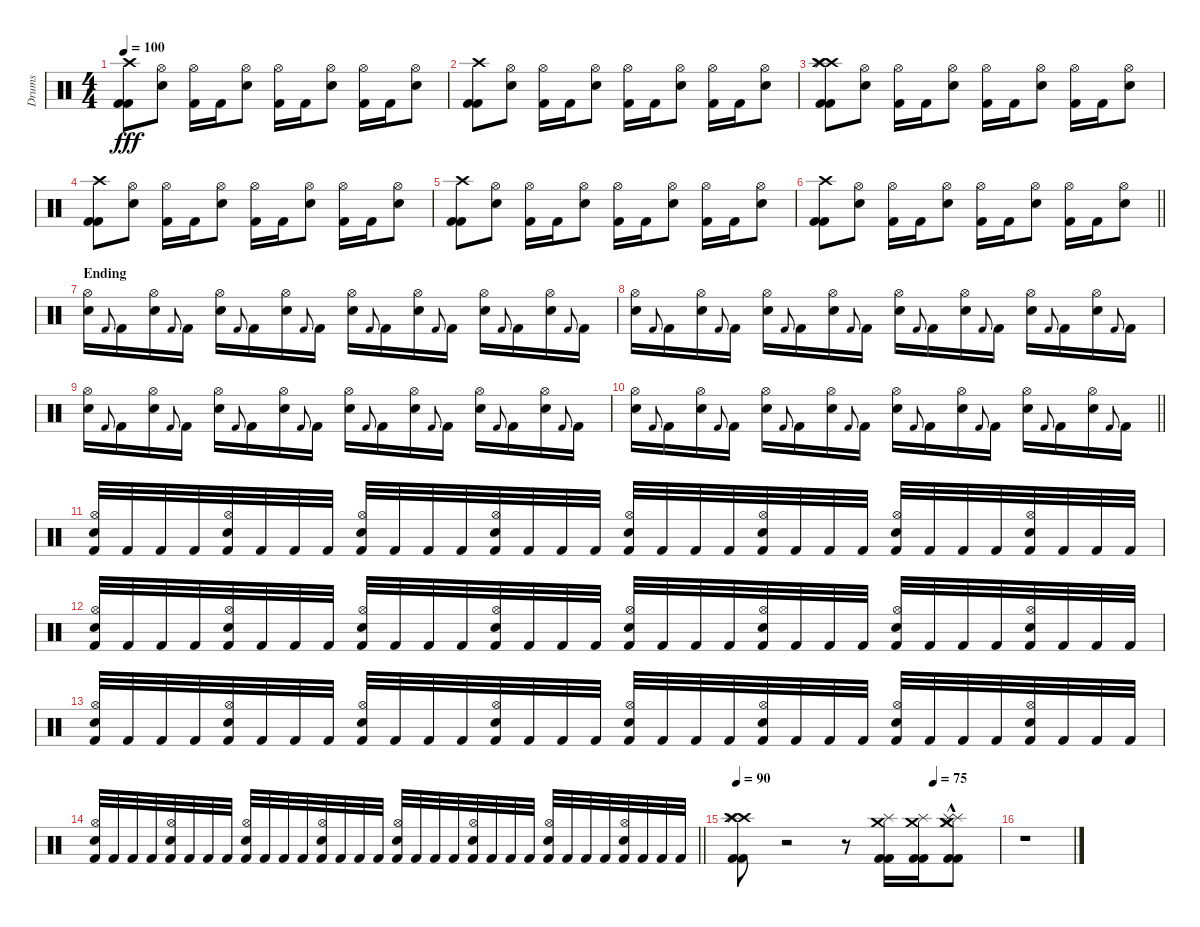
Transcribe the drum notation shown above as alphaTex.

\track ("Drums" "Drums") {instrument percussion}
\staff {score}
\articulation defaults
\ts (4 4)
\tempo 100
\clef neutral
\ks c
("Crash high (hit)" "Kick (hit) 2" "Kick (hit) 2").8{dy fff} ("Hi-Hat (open)" "Electric Snare (hit)").8 ("Hi-Hat (open)" "Kick (hit) 2").16 "Kick (hit) 2".16 ("Hi-Hat (open)" "Electric Snare (hit)").8 ("Hi-Hat (open)" "Kick (hit) 2").16 "Kick (hit) 2".16 ("Hi-Hat (open)" "Electric Snare (hit)").8 ("Hi-Hat (open)" "Kick (hit) 2").16 "Kick (hit) 2".16 ("Hi-Hat (open)" "Electric Snare (hit)").8 |
("Crash high (hit)" "Kick (hit) 2" "Kick (hit) 2").8 ("Hi-Hat (open)" "Electric Snare (hit)").8 ("Hi-Hat (open)" "Kick (hit) 2").16 "Kick (hit) 2".16 ("Hi-Hat (open)" "Electric Snare (hit)").8 ("Hi-Hat (open)" "Kick (hit) 2").16 "Kick (hit) 2".16 ("Hi-Hat (open)" "Electric Snare (hit)").8 ("Hi-Hat (open)" "Kick (hit) 2").16 "Kick (hit) 2".16 ("Hi-Hat (open)" "Electric Snare (hit)").8 |
("Crash high (hit)" "Crash high (hit)" "Splash (hit)" "Splash (hit)" "Kick (hit) 2" "Kick (hit) 2").8 ("Hi-Hat (open)" "Electric Snare (hit)").8 ("Hi-Hat (open)" "Kick (hit) 2").16 "Kick (hit) 2".16 ("Hi-Hat (open)" "Electric Snare (hit)").8 ("Hi-Hat (open)" "Kick (hit) 2").16 "Kick (hit) 2".16 ("Hi-Hat (open)" "Electric Snare (hit)").8 ("Hi-Hat (open)" "Kick (hit) 2").16 "Kick (hit) 2".16 ("Hi-Hat (open)" "Electric Snare (hit)").8 |
("Crash high (hit)" "Kick (hit) 2" "Kick (hit) 2").8 ("Hi-Hat (open)" "Electric Snare (hit)").8 ("Hi-Hat (open)" "Kick (hit) 2").16 "Kick (hit) 2".16 ("Hi-Hat (open)" "Electric Snare (hit)").8 ("Hi-Hat (open)" "Kick (hit) 2").16 "Kick (hit) 2".16 ("Hi-Hat (open)" "Electric Snare (hit)").8 ("Hi-Hat (open)" "Kick (hit) 2").16 "Kick (hit) 2".16 ("Hi-Hat (open)" "Electric Snare (hit)").8 |
("Crash high (hit)" "Kick (hit) 2" "Kick (hit) 2").8 ("Hi-Hat (open)" "Electric Snare (hit)").8 ("Hi-Hat (open)" "Kick (hit) 2").16 "Kick (hit) 2".16 ("Hi-Hat (open)" "Electric Snare (hit)").8 ("Hi-Hat (open)" "Kick (hit) 2").16 "Kick (hit) 2".16 ("Hi-Hat (open)" "Electric Snare (hit)").8 ("Hi-Hat (open)" "Kick (hit) 2").16 "Kick (hit) 2".16 ("Hi-Hat (open)" "Electric Snare (hit)").8 |
\barLineRight lightlight
("Crash high (hit)" "Kick (hit) 2" "Kick (hit) 2").8 ("Hi-Hat (open)" "Electric Snare (hit)").8 ("Hi-Hat (open)" "Kick (hit) 2").16 "Kick (hit) 2".16 ("Hi-Hat (open)" "Electric Snare (hit)").8 ("Hi-Hat (open)" "Kick (hit) 2").16 "Kick (hit) 2".16 ("Hi-Hat (open)" "Electric Snare (hit)").8 ("Hi-Hat (open)" "Kick (hit) 2").16 "Kick (hit) 2".16 ("Hi-Hat (open)" "Electric Snare (hit)").8 |
\section ("" "Ending")
("Hi-Hat (open)" "Electric Snare (hit)").16 "Kick (hit) 2".8{gr onbeat} "Kick (hit) 2".16 ("Hi-Hat (open)" "Electric Snare (hit)").16 "Kick (hit) 2".8{gr onbeat} "Kick (hit) 2".16 ("Hi-Hat (open)" "Electric Snare (hit)").16 "Kick (hit) 2".8{gr onbeat} "Kick (hit) 2".16 ("Hi-Hat (open)" "Electric Snare (hit)").16 "Kick (hit) 2".8{gr onbeat} "Kick (hit) 2".16 ("Hi-Hat (open)" "Electric Snare (hit)").16 "Kick (hit) 2".8{gr onbeat} "Kick (hit) 2".16 ("Hi-Hat (open)" "Electric Snare (hit)").16 "Kick (hit) 2".8{gr onbeat} "Kick (hit) 2".16 ("Hi-Hat (open)" "Electric Snare (hit)").16 "Kick (hit) 2".8{gr onbeat} "Kick (hit) 2".16 ("Hi-Hat (open)" "Electric Snare (hit)").16 "Kick (hit) 2".8{gr onbeat} "Kick (hit) 2".16 |
("Hi-Hat (open)" "Electric Snare (hit)").16 "Kick (hit) 2".8{gr onbeat} "Kick (hit) 2".16 ("Hi-Hat (open)" "Electric Snare (hit)").16 "Kick (hit) 2".8{gr onbeat} "Kick (hit) 2".16 ("Hi-Hat (open)" "Electric Snare (hit)").16 "Kick (hit) 2".8{gr onbeat} "Kick (hit) 2".16 ("Hi-Hat (open)" "Electric Snare (hit)").16 "Kick (hit) 2".8{gr onbeat} "Kick (hit) 2".16 ("Hi-Hat (open)" "Electric Snare (hit)").16 "Kick (hit) 2".8{gr onbeat} "Kick (hit) 2".16 ("Hi-Hat (open)" "Electric Snare (hit)").16 "Kick (hit) 2".8{gr onbeat} "Kick (hit) 2".16 ("Hi-Hat (open)" "Electric Snare (hit)").16 "Kick (hit) 2".8{gr onbeat} "Kick (hit) 2".16 ("Hi-Hat (open)" "Electric Snare (hit)").16 "Kick (hit) 2".8{gr onbeat} "Kick (hit) 2".16 |
("Hi-Hat (open)" "Electric Snare (hit)").16 "Kick (hit) 2".8{gr onbeat} "Kick (hit) 2".16 ("Hi-Hat (open)" "Electric Snare (hit)").16 "Kick (hit) 2".8{gr onbeat} "Kick (hit) 2".16 ("Hi-Hat (open)" "Electric Snare (hit)").16 "Kick (hit) 2".8{gr onbeat} "Kick (hit) 2".16 ("Hi-Hat (open)" "Electric Snare (hit)").16 "Kick (hit) 2".8{gr onbeat} "Kick (hit) 2".16 ("Hi-Hat (open)" "Electric Snare (hit)").16 "Kick (hit) 2".8{gr onbeat} "Kick (hit) 2".16 ("Hi-Hat (open)" "Electric Snare (hit)").16 "Kick (hit) 2".8{gr onbeat} "Kick (hit) 2".16 ("Hi-Hat (open)" "Electric Snare (hit)").16 "Kick (hit) 2".8{gr onbeat} "Kick (hit) 2".16 ("Hi-Hat (open)" "Electric Snare (hit)").16 "Kick (hit) 2".8{gr onbeat} "Kick (hit) 2".16 |
\barLineRight lightlight
("Hi-Hat (open)" "Electric Snare (hit)").16 "Kick (hit) 2".8{gr onbeat} "Kick (hit) 2".16 ("Hi-Hat (open)" "Electric Snare (hit)").16 "Kick (hit) 2".8{gr onbeat} "Kick (hit) 2".16 ("Hi-Hat (open)" "Electric Snare (hit)").16 "Kick (hit) 2".8{gr onbeat} "Kick (hit) 2".16 ("Hi-Hat (open)" "Electric Snare (hit)").16 "Kick (hit) 2".8{gr onbeat} "Kick (hit) 2".16 ("Hi-Hat (open)" "Electric Snare (hit)").16 "Kick (hit) 2".8{gr onbeat} "Kick (hit) 2".16 ("Hi-Hat (open)" "Electric Snare (hit)").16 "Kick (hit) 2".8{gr onbeat} "Kick (hit) 2".16 ("Hi-Hat (open)" "Electric Snare (hit)").16 "Kick (hit) 2".8{gr onbeat} "Kick (hit) 2".16 ("Hi-Hat (open)" "Electric Snare (hit)").16 "Kick (hit) 2".8{gr onbeat} "Kick (hit) 2".16 |
("Hi-Hat (open)" "Electric Snare (hit)" "Kick (hit) 2").32 "Kick (hit) 2".32 "Kick (hit) 2".32 "Kick (hit) 2".32 ("Hi-Hat (open)" "Electric Snare (hit)" "Kick (hit) 2").32 "Kick (hit) 2".32 "Kick (hit) 2".32 "Kick (hit) 2".32 ("Hi-Hat (open)" "Electric Snare (hit)" "Kick (hit) 2").32 "Kick (hit) 2".32 "Kick (hit) 2".32 "Kick (hit) 2".32 ("Hi-Hat (open)" "Electric Snare (hit)" "Kick (hit) 2").32 "Kick (hit) 2".32 "Kick (hit) 2".32 "Kick (hit) 2".32 ("Hi-Hat (open)" "Electric Snare (hit)" "Kick (hit) 2").32 "Kick (hit) 2".32 "Kick (hit) 2".32 "Kick (hit) 2".32 ("Hi-Hat (open)" "Electric Snare (hit)" "Kick (hit) 2").32 "Kick (hit) 2".32 "Kick (hit) 2".32 "Kick (hit) 2".32 ("Hi-Hat (open)" "Electric Snare (hit)" "Kick (hit) 2").32 "Kick (hit) 2".32 "Kick (hit) 2".32 "Kick (hit) 2".32 ("Hi-Hat (open)" "Electric Snare (hit)" "Kick (hit) 2").32 "Kick (hit) 2".32 "Kick (hit) 2".32 "Kick (hit) 2".32 |
("Hi-Hat (open)" "Electric Snare (hit)" "Kick (hit) 2").32 "Kick (hit) 2".32 "Kick (hit) 2".32 "Kick (hit) 2".32 ("Hi-Hat (open)" "Electric Snare (hit)" "Kick (hit) 2").32 "Kick (hit) 2".32 "Kick (hit) 2".32 "Kick (hit) 2".32 ("Hi-Hat (open)" "Electric Snare (hit)" "Kick (hit) 2").32 "Kick (hit) 2".32 "Kick (hit) 2".32 "Kick (hit) 2".32 ("Hi-Hat (open)" "Electric Snare (hit)" "Kick (hit) 2").32 "Kick (hit) 2".32 "Kick (hit) 2".32 "Kick (hit) 2".32 ("Hi-Hat (open)" "Electric Snare (hit)" "Kick (hit) 2").32 "Kick (hit) 2".32 "Kick (hit) 2".32 "Kick (hit) 2".32 ("Hi-Hat (open)" "Electric Snare (hit)" "Kick (hit) 2").32 "Kick (hit) 2".32 "Kick (hit) 2".32 "Kick (hit) 2".32 ("Hi-Hat (open)" "Electric Snare (hit)" "Kick (hit) 2").32 "Kick (hit) 2".32 "Kick (hit) 2".32 "Kick (hit) 2".32 ("Hi-Hat (open)" "Electric Snare (hit)" "Kick (hit) 2").32 "Kick (hit) 2".32 "Kick (hit) 2".32 "Kick (hit) 2".32 |
("Hi-Hat (open)" "Electric Snare (hit)" "Kick (hit) 2").32 "Kick (hit) 2".32 "Kick (hit) 2".32 "Kick (hit) 2".32 ("Hi-Hat (open)" "Electric Snare (hit)" "Kick (hit) 2").32 "Kick (hit) 2".32 "Kick (hit) 2".32 "Kick (hit) 2".32 ("Hi-Hat (open)" "Electric Snare (hit)" "Kick (hit) 2").32 "Kick (hit) 2".32 "Kick (hit) 2".32 "Kick (hit) 2".32 ("Hi-Hat (open)" "Electric Snare (hit)" "Kick (hit) 2").32 "Kick (hit) 2".32 "Kick (hit) 2".32 "Kick (hit) 2".32 ("Hi-Hat (open)" "Electric Snare (hit)" "Kick (hit) 2").32 "Kick (hit) 2".32 "Kick (hit) 2".32 "Kick (hit) 2".32 ("Hi-Hat (open)" "Electric Snare (hit)" "Kick (hit) 2").32 "Kick (hit) 2".32 "Kick (hit) 2".32 "Kick (hit) 2".32 ("Hi-Hat (open)" "Electric Snare (hit)" "Kick (hit) 2").32 "Kick (hit) 2".32 "Kick (hit) 2".32 "Kick (hit) 2".32 ("Hi-Hat (open)" "Electric Snare (hit)" "Kick (hit) 2").32 "Kick (hit) 2".32 "Kick (hit) 2".32 "Kick (hit) 2".32 |
\barLineRight lightlight
("Hi-Hat (open)" "Electric Snare (hit)" "Kick (hit) 2").32 "Kick (hit) 2".32 "Kick (hit) 2".32 "Kick (hit) 2".32 ("Hi-Hat (open)" "Electric Snare (hit)" "Kick (hit) 2").32 "Kick (hit) 2".32 "Kick (hit) 2".32 "Kick (hit) 2".32 ("Hi-Hat (open)" "Electric Snare (hit)" "Kick (hit) 2").32 "Kick (hit) 2".32 "Kick (hit) 2".32 "Kick (hit) 2".32 ("Hi-Hat (open)" "Electric Snare (hit)" "Kick (hit) 2").32 "Kick (hit) 2".32 "Kick (hit) 2".32 "Kick (hit) 2".32 ("Hi-Hat (open)" "Electric Snare (hit)" "Kick (hit) 2").32 "Kick (hit) 2".32 "Kick (hit) 2".32 "Kick (hit) 2".32 ("Hi-Hat (open)" "Electric Snare (hit)" "Kick (hit) 2").32 "Kick (hit) 2".32 "Kick (hit) 2".32 "Kick (hit) 2".32 ("Hi-Hat (open)" "Electric Snare (hit)" "Kick (hit) 2").32 "Kick (hit) 2".32 "Kick (hit) 2".32 "Kick (hit) 2".32 ("Hi-Hat (open)" "Electric Snare (hit)" "Kick (hit) 2").32 "Kick (hit) 2".32 "Kick (hit) 2".32 "Kick (hit) 2".32 |
\tempo 90
\tempo (75 0.75)
("Crash high (hit)" "Crash high (hit)" "Splash (hit)" "Splash (hit)" "Kick (hit) 2" "Kick (hit) 2").8 r.2{volume 0} r.8 ("Splash (hit)" "Crash medium (hit)" "Kick (hit) 2" "Kick (hit) 2").16{volume 16} ("Splash (hit)" "Crash medium (hit)" "Kick (hit) 2" "Kick (hit) 2").16 ("Splash (hit)"{hac} "Crash medium (hit)"{hac} "Splash (hit)"{hac} "Crash medium (hit)"{hac} "Kick (hit) 2"{hac} "Kick (hit) 2"{hac}).8 |
r.1
